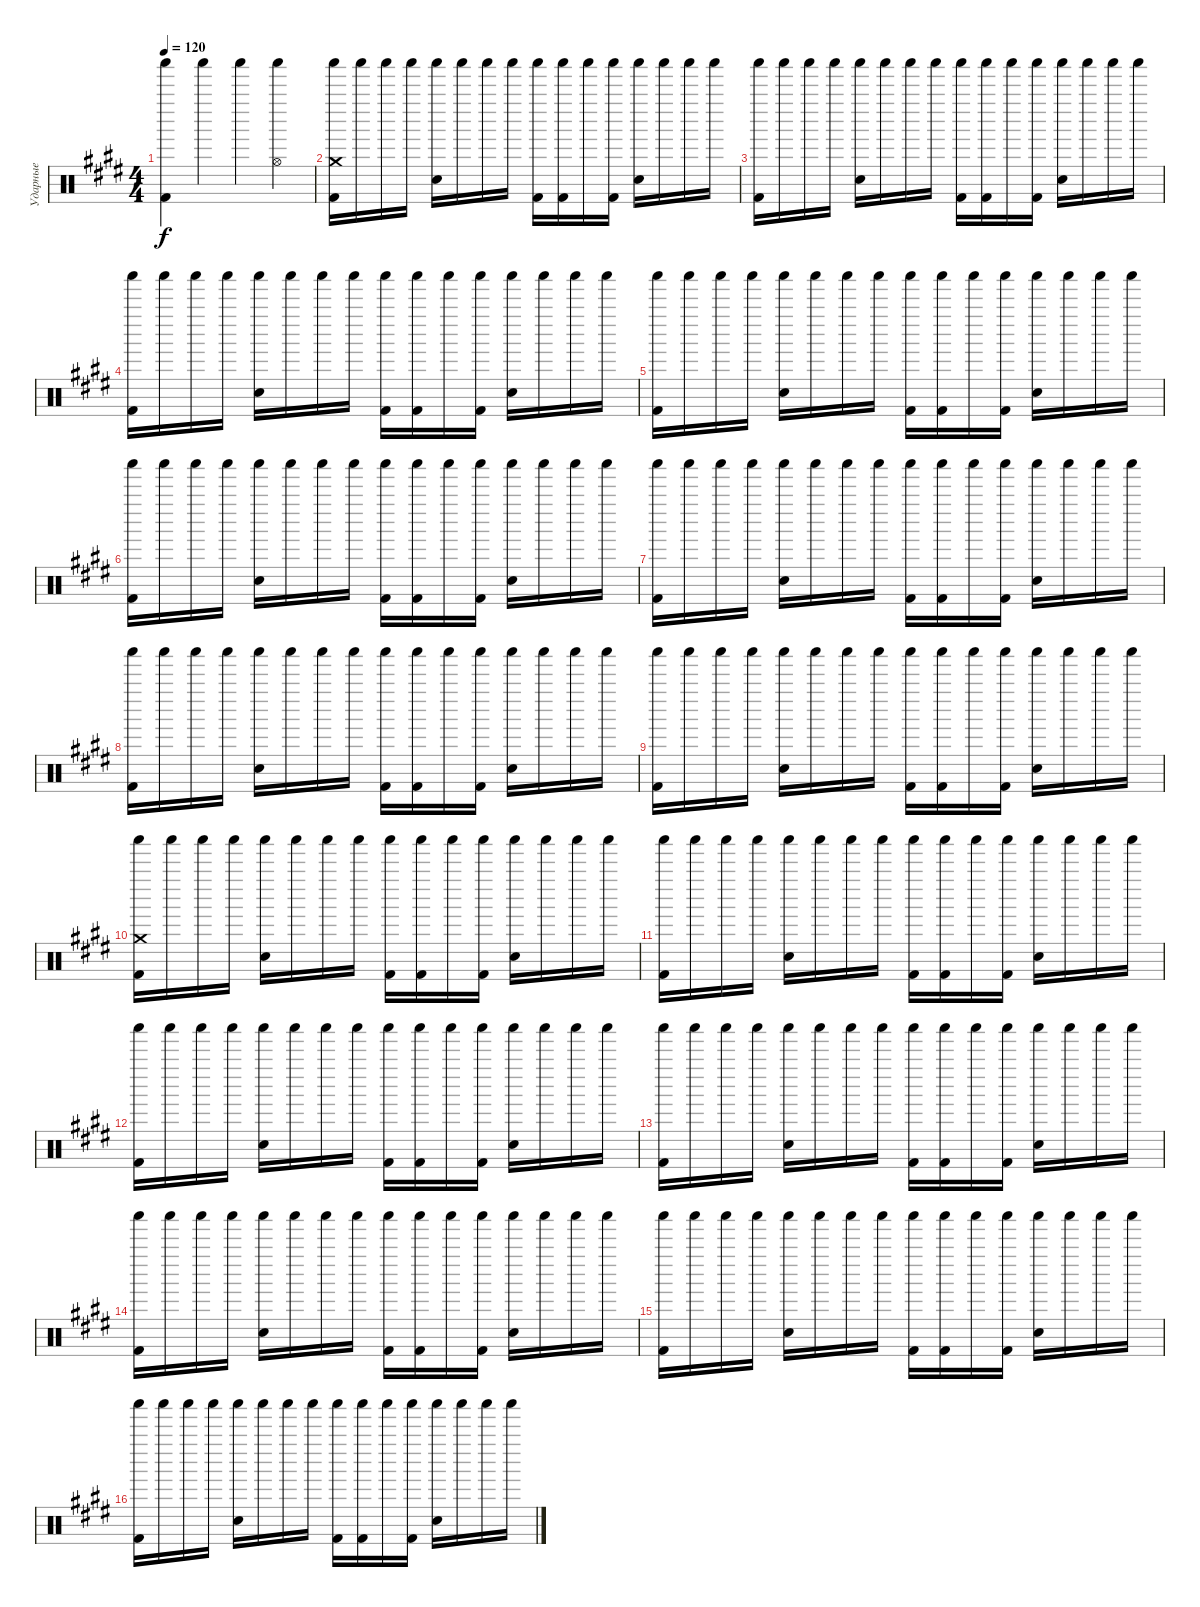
\track ("Ударные" "Ударные") {instrument percussion}
\staff {score}
\articulation defaults
\ts (4 4)
\tempo 120
\clef neutral
\ks e
("Shaker (hit)" "Kick (hit) 2").4{dy f} "Shaker (hit)".4 "Shaker (hit)".4 ("Shaker (hit)" "Hi-Hat (open)").4 |
("Crash medium (hit)" "Shaker (hit)" "Kick (hit) 2").16 "Shaker (hit)".16 "Shaker (hit)".16 "Shaker (hit)".16 ("Shaker (hit)" "Snare (hit) 2").16 "Shaker (hit)".16 "Shaker (hit)".16 "Shaker (hit)".16 ("Shaker (hit)" "Kick (hit) 2").16 ("Shaker (hit)" "Kick (hit) 2").16 "Shaker (hit)".16 ("Shaker (hit)" "Kick (hit) 2").16 ("Shaker (hit)" "Snare (hit) 2").16 "Shaker (hit)".16 "Shaker (hit)".16 "Shaker (hit)".16 |
("Shaker (hit)" "Kick (hit) 2").16 "Shaker (hit)".16 "Shaker (hit)".16 "Shaker (hit)".16 ("Shaker (hit)" "Snare (hit) 2").16 "Shaker (hit)".16 "Shaker (hit)".16 "Shaker (hit)".16 ("Shaker (hit)" "Kick (hit) 2").16 ("Shaker (hit)" "Kick (hit) 2").16 "Shaker (hit)".16 ("Shaker (hit)" "Kick (hit) 2").16 ("Shaker (hit)" "Snare (hit) 2").16 "Shaker (hit)".16 "Shaker (hit)".16 "Shaker (hit)".16 |
("Shaker (hit)" "Kick (hit) 2").16 "Shaker (hit)".16 "Shaker (hit)".16 "Shaker (hit)".16 ("Shaker (hit)" "Snare (hit) 2").16 "Shaker (hit)".16 "Shaker (hit)".16 "Shaker (hit)".16 ("Shaker (hit)" "Kick (hit) 2").16 ("Shaker (hit)" "Kick (hit) 2").16 "Shaker (hit)".16 ("Shaker (hit)" "Kick (hit) 2").16 ("Shaker (hit)" "Snare (hit) 2").16 "Shaker (hit)".16 "Shaker (hit)".16 "Shaker (hit)".16 |
("Shaker (hit)" "Kick (hit) 2").16 "Shaker (hit)".16 "Shaker (hit)".16 "Shaker (hit)".16 ("Shaker (hit)" "Snare (hit) 2").16 "Shaker (hit)".16 "Shaker (hit)".16 "Shaker (hit)".16 ("Shaker (hit)" "Kick (hit) 2").16 ("Shaker (hit)" "Kick (hit) 2").16 "Shaker (hit)".16 ("Shaker (hit)" "Kick (hit) 2").16 ("Shaker (hit)" "Snare (hit) 2").16 "Shaker (hit)".16 "Shaker (hit)".16 "Shaker (hit)".16 |
("Shaker (hit)" "Kick (hit) 2").16 "Shaker (hit)".16 "Shaker (hit)".16 "Shaker (hit)".16 ("Shaker (hit)" "Snare (hit) 2").16 "Shaker (hit)".16 "Shaker (hit)".16 "Shaker (hit)".16 ("Shaker (hit)" "Kick (hit) 2").16 ("Shaker (hit)" "Kick (hit) 2").16 "Shaker (hit)".16 ("Shaker (hit)" "Kick (hit) 2").16 ("Shaker (hit)" "Snare (hit) 2").16 "Shaker (hit)".16 "Shaker (hit)".16 "Shaker (hit)".16 |
("Shaker (hit)" "Kick (hit) 2").16 "Shaker (hit)".16 "Shaker (hit)".16 "Shaker (hit)".16 ("Shaker (hit)" "Snare (hit) 2").16 "Shaker (hit)".16 "Shaker (hit)".16 "Shaker (hit)".16 ("Shaker (hit)" "Kick (hit) 2").16 ("Shaker (hit)" "Kick (hit) 2").16 "Shaker (hit)".16 ("Shaker (hit)" "Kick (hit) 2").16 ("Shaker (hit)" "Snare (hit) 2").16 "Shaker (hit)".16 "Shaker (hit)".16 "Shaker (hit)".16 |
("Shaker (hit)" "Kick (hit) 2").16 "Shaker (hit)".16 "Shaker (hit)".16 "Shaker (hit)".16 ("Shaker (hit)" "Snare (hit) 2").16 "Shaker (hit)".16 "Shaker (hit)".16 "Shaker (hit)".16 ("Shaker (hit)" "Kick (hit) 2").16 ("Shaker (hit)" "Kick (hit) 2").16 "Shaker (hit)".16 ("Shaker (hit)" "Kick (hit) 2").16 ("Shaker (hit)" "Snare (hit) 2").16 "Shaker (hit)".16 "Shaker (hit)".16 "Shaker (hit)".16 |
("Shaker (hit)" "Kick (hit) 2").16 "Shaker (hit)".16 "Shaker (hit)".16 "Shaker (hit)".16 ("Shaker (hit)" "Snare (hit) 2").16 "Shaker (hit)".16 "Shaker (hit)".16 "Shaker (hit)".16 ("Shaker (hit)" "Kick (hit) 2").16 ("Shaker (hit)" "Kick (hit) 2").16 "Shaker (hit)".16 ("Shaker (hit)" "Kick (hit) 2").16 ("Shaker (hit)" "Snare (hit) 2").16 "Shaker (hit)".16 "Shaker (hit)".16 "Shaker (hit)".16 |
("Crash medium (hit)" "Shaker (hit)" "Kick (hit) 2").16 "Shaker (hit)".16 "Shaker (hit)".16 "Shaker (hit)".16 ("Shaker (hit)" "Snare (hit) 2").16 "Shaker (hit)".16 "Shaker (hit)".16 "Shaker (hit)".16 ("Shaker (hit)" "Kick (hit) 2").16 ("Shaker (hit)" "Kick (hit) 2").16 "Shaker (hit)".16 ("Shaker (hit)" "Kick (hit) 2").16 ("Shaker (hit)" "Snare (hit) 2").16 "Shaker (hit)".16 "Shaker (hit)".16 "Shaker (hit)".16 |
("Shaker (hit)" "Kick (hit) 2").16 "Shaker (hit)".16 "Shaker (hit)".16 "Shaker (hit)".16 ("Shaker (hit)" "Snare (hit) 2").16 "Shaker (hit)".16 "Shaker (hit)".16 "Shaker (hit)".16 ("Shaker (hit)" "Kick (hit) 2").16 ("Shaker (hit)" "Kick (hit) 2").16 "Shaker (hit)".16 ("Shaker (hit)" "Kick (hit) 2").16 ("Shaker (hit)" "Snare (hit) 2").16 "Shaker (hit)".16 "Shaker (hit)".16 "Shaker (hit)".16 |
("Shaker (hit)" "Kick (hit) 2").16 "Shaker (hit)".16 "Shaker (hit)".16 "Shaker (hit)".16 ("Shaker (hit)" "Snare (hit) 2").16 "Shaker (hit)".16 "Shaker (hit)".16 "Shaker (hit)".16 ("Shaker (hit)" "Kick (hit) 2").16 ("Shaker (hit)" "Kick (hit) 2").16 "Shaker (hit)".16 ("Shaker (hit)" "Kick (hit) 2").16 ("Shaker (hit)" "Snare (hit) 2").16 "Shaker (hit)".16 "Shaker (hit)".16 "Shaker (hit)".16 |
("Shaker (hit)" "Kick (hit) 2").16 "Shaker (hit)".16 "Shaker (hit)".16 "Shaker (hit)".16 ("Shaker (hit)" "Snare (hit) 2").16 "Shaker (hit)".16 "Shaker (hit)".16 "Shaker (hit)".16 ("Shaker (hit)" "Kick (hit) 2").16 ("Shaker (hit)" "Kick (hit) 2").16 "Shaker (hit)".16 ("Shaker (hit)" "Kick (hit) 2").16 ("Shaker (hit)" "Snare (hit) 2").16 "Shaker (hit)".16 "Shaker (hit)".16 "Shaker (hit)".16 |
("Shaker (hit)" "Kick (hit) 2").16 "Shaker (hit)".16 "Shaker (hit)".16 "Shaker (hit)".16 ("Shaker (hit)" "Snare (hit) 2").16 "Shaker (hit)".16 "Shaker (hit)".16 "Shaker (hit)".16 ("Shaker (hit)" "Kick (hit) 2").16 ("Shaker (hit)" "Kick (hit) 2").16 "Shaker (hit)".16 ("Shaker (hit)" "Kick (hit) 2").16 ("Shaker (hit)" "Snare (hit) 2").16 "Shaker (hit)".16 "Shaker (hit)".16 "Shaker (hit)".16 |
("Shaker (hit)" "Kick (hit) 2").16 "Shaker (hit)".16 "Shaker (hit)".16 "Shaker (hit)".16 ("Shaker (hit)" "Snare (hit) 2").16 "Shaker (hit)".16 "Shaker (hit)".16 "Shaker (hit)".16 ("Shaker (hit)" "Kick (hit) 2").16 ("Shaker (hit)" "Kick (hit) 2").16 "Shaker (hit)".16 ("Shaker (hit)" "Kick (hit) 2").16 ("Shaker (hit)" "Snare (hit) 2").16 "Shaker (hit)".16 "Shaker (hit)".16 "Shaker (hit)".16 |
("Shaker (hit)" "Kick (hit) 2").16 "Shaker (hit)".16 "Shaker (hit)".16 "Shaker (hit)".16 ("Shaker (hit)" "Snare (hit) 2").16 "Shaker (hit)".16 "Shaker (hit)".16 "Shaker (hit)".16 ("Shaker (hit)" "Kick (hit) 2").16 ("Shaker (hit)" "Kick (hit) 2").16 "Shaker (hit)".16 ("Shaker (hit)" "Kick (hit) 2").16 ("Shaker (hit)" "Snare (hit) 2").16 "Shaker (hit)".16 "Shaker (hit)".16 "Shaker (hit)".16
